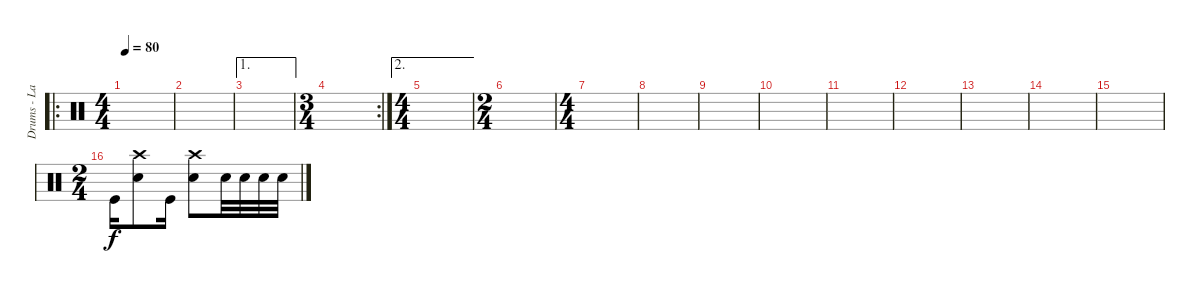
\track ("Drums - Lars" "Drums - La") {instrument percussion}
\staff {score}
\articulation defaults
\ro
\ts (4 4)
\tempo 80
\clef neutral
\ks c
|
|
\ae 1
|
\rc 2
\ts (3 4)
|
\ae 2
\ts (4 4)
|
\ts (2 4)
|
\ts (4 4)
|
|
|
|
|
|
|
|
|
\ts (2 4)
"Kick (hit)".16 ("Crash high (hit)" "Snare (hit) 2").8 "Kick (hit)".16 ("Crash high (hit)" "Snare (hit) 2").8 "Snare (hit) 2".32 "Snare (hit) 2".32 "Snare (hit) 2".32 "Snare (hit) 2".32
